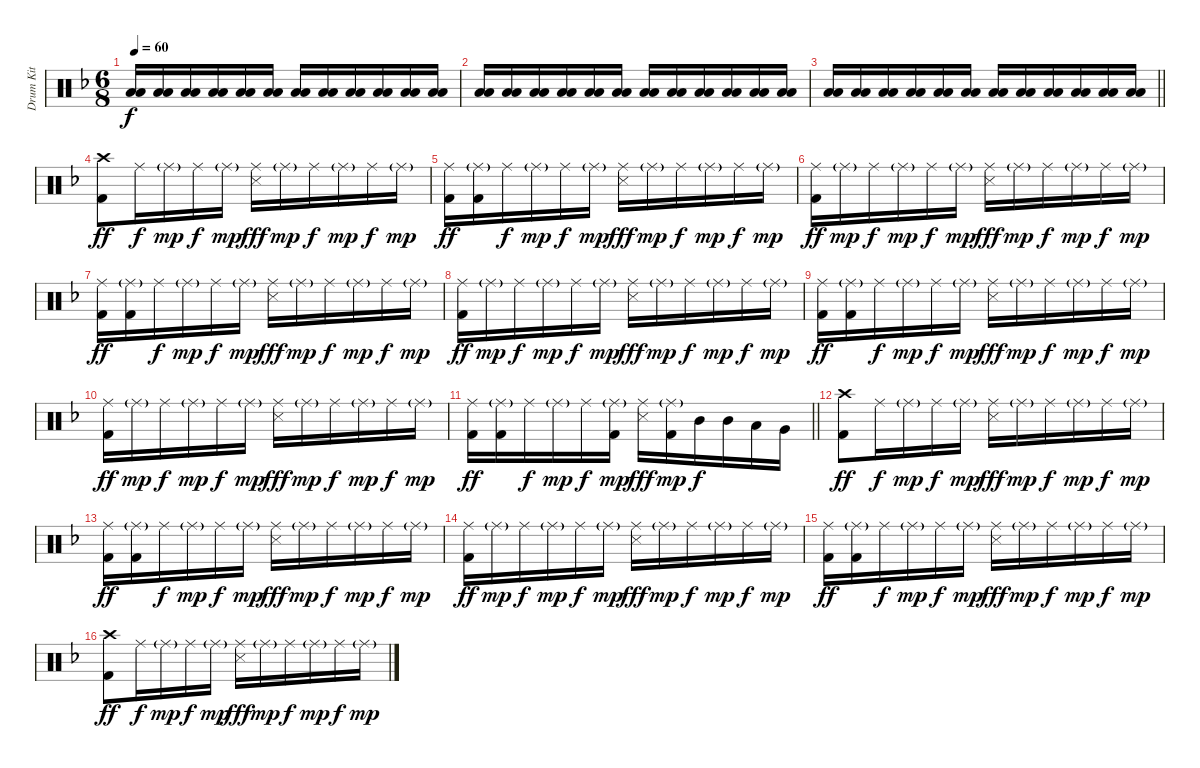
\track ("Drum Kit  (acous.)" "Drum Kit  ") {instrument percussion}
\staff {score}
\articulation defaults
\ts (6 8)
\tempo 60
\clef neutral
\ks dminor
("Low Tom (hit)" "Low Floor Tom (hit)").16{dy f volume 12} ("Low Tom (hit)" "Low Floor Tom (hit)").16 ("Low Tom (hit)" "Low Floor Tom (hit)").16 ("Low Tom (hit)" "Low Floor Tom (hit)").16 ("Low Tom (hit)" "Low Floor Tom (hit)").16 ("Low Tom (hit)" "Low Floor Tom (hit)").16 ("Low Tom (hit)" "Low Floor Tom (hit)").16 ("Low Tom (hit)" "Low Floor Tom (hit)").16 ("Low Tom (hit)" "Low Floor Tom (hit)").16 ("Low Tom (hit)" "Low Floor Tom (hit)").16 ("Low Tom (hit)" "Low Floor Tom (hit)").16 ("Low Tom (hit)" "Low Floor Tom (hit)").16 |
("Low Tom (hit)" "Low Floor Tom (hit)").16 ("Low Tom (hit)" "Low Floor Tom (hit)").16 ("Low Tom (hit)" "Low Floor Tom (hit)").16 ("Low Tom (hit)" "Low Floor Tom (hit)").16 ("Low Tom (hit)" "Low Floor Tom (hit)").16 ("Low Tom (hit)" "Low Floor Tom (hit)").16 ("Low Tom (hit)" "Low Floor Tom (hit)").16 ("Low Tom (hit)" "Low Floor Tom (hit)").16 ("Low Tom (hit)" "Low Floor Tom (hit)").16 ("Low Tom (hit)" "Low Floor Tom (hit)").16 ("Low Tom (hit)" "Low Floor Tom (hit)").16 ("Low Tom (hit)" "Low Floor Tom (hit)").16 |
\barLineRight lightlight
("Low Tom (hit)" "Low Floor Tom (hit)").16 ("Low Tom (hit)" "Low Floor Tom (hit)").16 ("Low Tom (hit)" "Low Floor Tom (hit)").16 ("Low Tom (hit)" "Low Floor Tom (hit)").16 ("Low Tom (hit)" "Low Floor Tom (hit)").16 ("Low Tom (hit)" "Low Floor Tom (hit)").16 ("Low Tom (hit)" "Low Floor Tom (hit)").16 ("Low Tom (hit)" "Low Floor Tom (hit)").16 ("Low Tom (hit)" "Low Floor Tom (hit)").16 ("Low Tom (hit)" "Low Floor Tom (hit)").16 ("Low Tom (hit)" "Low Floor Tom (hit)").16 ("Low Tom (hit)" "Low Floor Tom (hit)").16 |
\section ("" "")
("Crash high (hit)" "Kick (hit) 2").8{dy ff} "Ride (middle)".16{dy f} "Ride (middle)"{g}.16{dy mp} "Ride (middle)".16{dy f} "Ride (middle)"{g}.16{dy mp} ("Ride (middle)" "Snare (side stick) 3").16{dy fff} "Ride (middle)"{g}.16{dy mp} "Ride (middle)".16{dy f} "Ride (middle)"{g}.16{dy mp} "Ride (middle)".16{dy f} "Ride (middle)"{g}.16{dy mp} |
("Ride (middle)" "Kick (hit) 2").16{dy ff} ("Ride (middle)"{g} "Kick (hit) 2").16 "Ride (middle)".16{dy f} "Ride (middle)"{g}.16{dy mp} "Ride (middle)".16{dy f} "Ride (middle)"{g}.16{dy mp} ("Ride (middle)" "Snare (side stick) 3").16{dy fff} "Ride (middle)"{g}.16{dy mp} "Ride (middle)".16{dy f} "Ride (middle)"{g}.16{dy mp} "Ride (middle)".16{dy f} "Ride (middle)"{g}.16{dy mp} |
("Ride (middle)" "Kick (hit) 2").16{dy ff} "Ride (middle)"{g}.16{dy mp} "Ride (middle)".16{dy f} "Ride (middle)"{g}.16{dy mp} "Ride (middle)".16{dy f} "Ride (middle)"{g}.16{dy mp} ("Ride (middle)" "Snare (side stick) 3").16{dy fff} "Ride (middle)"{g}.16{dy mp} "Ride (middle)".16{dy f} "Ride (middle)"{g}.16{dy mp} "Ride (middle)".16{dy f} "Ride (middle)"{g}.16{dy mp} |
("Ride (middle)" "Kick (hit) 2").16{dy ff} ("Ride (middle)"{g} "Kick (hit) 2").16 "Ride (middle)".16{dy f} "Ride (middle)"{g}.16{dy mp} "Ride (middle)".16{dy f} "Ride (middle)"{g}.16{dy mp} ("Ride (middle)" "Snare (side stick) 3").16{dy fff} "Ride (middle)"{g}.16{dy mp} "Ride (middle)".16{dy f} "Ride (middle)"{g}.16{dy mp} "Ride (middle)".16{dy f} "Ride (middle)"{g}.16{dy mp} |
("Ride (middle)" "Kick (hit) 2").16{dy ff} "Ride (middle)"{g}.16{dy mp} "Ride (middle)".16{dy f} "Ride (middle)"{g}.16{dy mp} "Ride (middle)".16{dy f} "Ride (middle)"{g}.16{dy mp} ("Ride (middle)" "Snare (side stick) 3").16{dy fff} "Ride (middle)"{g}.16{dy mp} "Ride (middle)".16{dy f} "Ride (middle)"{g}.16{dy mp} "Ride (middle)".16{dy f} "Ride (middle)"{g}.16{dy mp} |
("Ride (middle)" "Kick (hit) 2").16{dy ff} ("Ride (middle)"{g} "Kick (hit) 2").16 "Ride (middle)".16{dy f} "Ride (middle)"{g}.16{dy mp} "Ride (middle)".16{dy f} "Ride (middle)"{g}.16{dy mp} ("Ride (middle)" "Snare (side stick) 3").16{dy fff} "Ride (middle)"{g}.16{dy mp} "Ride (middle)".16{dy f} "Ride (middle)"{g}.16{dy mp} "Ride (middle)".16{dy f} "Ride (middle)"{g}.16{dy mp} |
("Ride (middle)" "Kick (hit) 2").16{dy ff} "Ride (middle)"{g}.16{dy mp} "Ride (middle)".16{dy f} "Ride (middle)"{g}.16{dy mp} "Ride (middle)".16{dy f} "Ride (middle)"{g}.16{dy mp} ("Ride (middle)" "Snare (side stick) 3").16{dy fff} "Ride (middle)"{g}.16{dy mp} "Ride (middle)".16{dy f} "Ride (middle)"{g}.16{dy mp} "Ride (middle)".16{dy f} "Ride (middle)"{g}.16{dy mp} |
\barLineRight lightlight
("Ride (middle)" "Kick (hit) 2").16{dy ff} ("Ride (middle)"{g} "Kick (hit) 2").16 "Ride (middle)".16{dy f} "Ride (middle)"{g}.16{dy mp} "Ride (middle)".16{dy f} ("Ride (middle)"{g} "Kick (hit) 2").16{dy mp} ("Ride (middle)" "Snare (side stick) 3").16{dy fff} ("Ride (middle)"{g} "Kick (hit) 2").16{dy mp} "Mid Tom (hit)".16{dy f} "Mid Tom (hit)".16 "Low Tom (hit)".16 "Very Low Tom (hit)".16 |
\section ("" "")
("Crash high (hit)" "Kick (hit) 2").8{dy ff} "Ride (middle)".16{dy f} "Ride (middle)"{g}.16{dy mp} "Ride (middle)".16{dy f} "Ride (middle)"{g}.16{dy mp} ("Ride (middle)" "Snare (side stick) 3").16{dy fff} "Ride (middle)"{g}.16{dy mp} "Ride (middle)".16{dy f} "Ride (middle)"{g}.16{dy mp} "Ride (middle)".16{dy f} "Ride (middle)"{g}.16{dy mp} |
("Ride (middle)" "Kick (hit) 2").16{dy ff} ("Ride (middle)"{g} "Kick (hit) 2").16 "Ride (middle)".16{dy f} "Ride (middle)"{g}.16{dy mp} "Ride (middle)".16{dy f} "Ride (middle)"{g}.16{dy mp} ("Ride (middle)" "Snare (side stick) 3").16{dy fff} "Ride (middle)"{g}.16{dy mp} "Ride (middle)".16{dy f} "Ride (middle)"{g}.16{dy mp} "Ride (middle)".16{dy f} "Ride (middle)"{g}.16{dy mp} |
("Ride (middle)" "Kick (hit) 2").16{dy ff} "Ride (middle)"{g}.16{dy mp} "Ride (middle)".16{dy f} "Ride (middle)"{g}.16{dy mp} "Ride (middle)".16{dy f} "Ride (middle)"{g}.16{dy mp} ("Ride (middle)" "Snare (side stick) 3").16{dy fff} "Ride (middle)"{g}.16{dy mp} "Ride (middle)".16{dy f} "Ride (middle)"{g}.16{dy mp} "Ride (middle)".16{dy f} "Ride (middle)"{g}.16{dy mp} |
("Ride (middle)" "Kick (hit) 2").16{dy ff} ("Ride (middle)"{g} "Kick (hit) 2").16 "Ride (middle)".16{dy f} "Ride (middle)"{g}.16{dy mp} "Ride (middle)".16{dy f} "Ride (middle)"{g}.16{dy mp} ("Ride (middle)" "Snare (side stick) 3").16{dy fff} "Ride (middle)"{g}.16{dy mp} "Ride (middle)".16{dy f} "Ride (middle)"{g}.16{dy mp} "Ride (middle)".16{dy f} "Ride (middle)"{g}.16{dy mp} |
("Crash high (hit)" "Kick (hit) 2").8{dy ff} "Ride (middle)".16{dy f} "Ride (middle)"{g}.16{dy mp} "Ride (middle)".16{dy f} "Ride (middle)"{g}.16{dy mp} ("Ride (middle)" "Snare (side stick) 3").16{dy fff} "Ride (middle)"{g}.16{dy mp} "Ride (middle)".16{dy f} "Ride (middle)"{g}.16{dy mp} "Ride (middle)".16{dy f} "Ride (middle)"{g}.16{dy mp}
